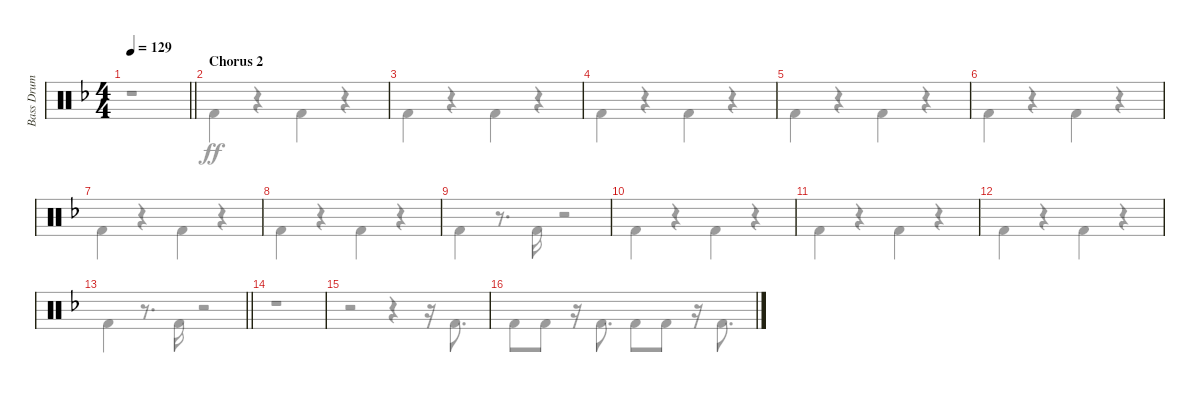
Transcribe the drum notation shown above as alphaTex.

\track ("Bass Drum" "Bass Drum") {instrument percussion}
\staff {score}
\articulation defaults
\voice
\ts (4 4)
\tempo 129
\clef neutral
\barLineRight lightlight
\ks dminor
|
\section ("" "Chorus 2")
|
|
|
|
|
|
|
|
|
|
|
\barLineRight lightlight
|
|
|
\voice
\clef neutral
\barLineRight lightlight
\ks dminor
r.1{dy ff} |
"Kick (hit) 2".4 r.4 "Kick (hit) 2".4 r.4 |
"Kick (hit) 2".4 r.4 "Kick (hit) 2".4 r.4 |
"Kick (hit) 2".4 r.4 "Kick (hit) 2".4 r.4 |
"Kick (hit) 2".4 r.4 "Kick (hit) 2".4 r.4 |
"Kick (hit) 2".4 r.4 "Kick (hit) 2".4 r.4 |
"Kick (hit) 2".4 r.4 "Kick (hit) 2".4 r.4 |
"Kick (hit) 2".4 r.4 "Kick (hit) 2".4 r.4 |
"Kick (hit) 2".4 r.8{d} "Kick (hit) 2".16 r.2 |
"Kick (hit) 2".4 r.4 "Kick (hit) 2".4 r.4 |
"Kick (hit) 2".4 r.4 "Kick (hit) 2".4 r.4 |
"Kick (hit) 2".4 r.4 "Kick (hit) 2".4 r.4 |
\barLineRight lightlight "Kick (hit) 2".4
r.8{d} "Kick (hit) 2".16 r.2 |
r.1 |
r.2 r.4 r.16 "Kick (hit) 2".8{d} |
"Kick (hit) 2".8 "Kick (hit) 2".8 r.16 "Kick (hit) 2".8{d} "Kick (hit) 2".8 "Kick (hit) 2".8 r.16 "Kick (hit) 2".8{d}
